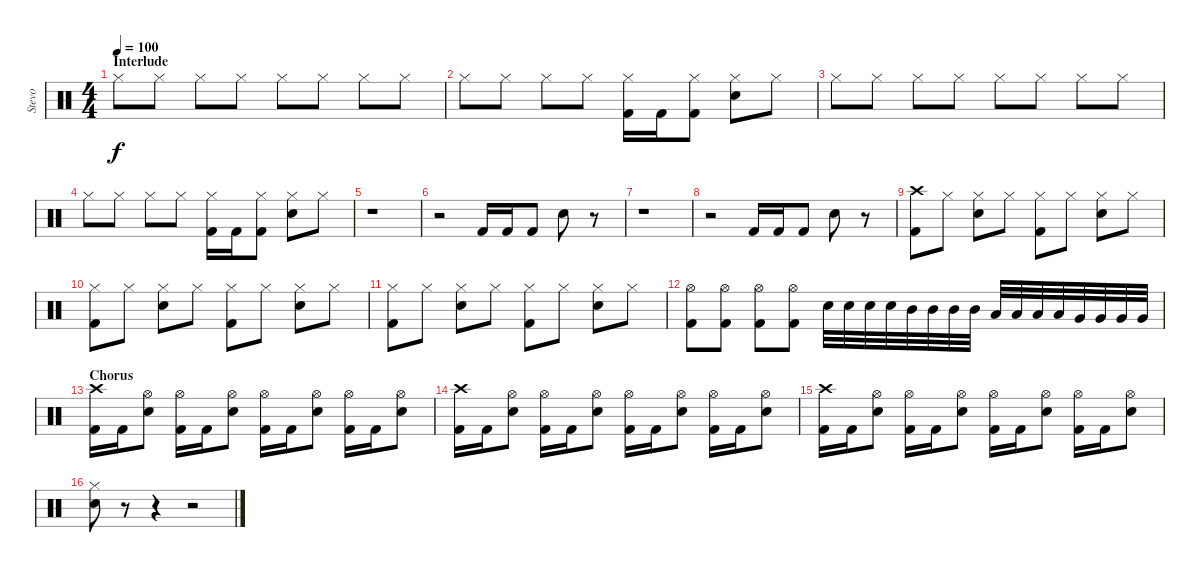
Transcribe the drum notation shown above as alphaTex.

\track ("Stevo" "Stevo") {instrument percussion}
\staff {score}
\articulation defaults
\ts (4 4)
\section ("" "Interlude")
\tempo 100
\clef neutral
\ks c "Hi-Hat (closed)".8{dy f} "Hi-Hat (closed)".8 "Hi-Hat (closed)".8 "Hi-Hat (closed)".8 "Hi-Hat (closed)".8 "Hi-Hat (closed)".8 "Hi-Hat (closed)".8 "Hi-Hat (closed)".8
|
"Hi-Hat (closed)".8 "Hi-Hat (closed)".8 "Hi-Hat (closed)".8 "Hi-Hat (closed)".8 ("Hi-Hat (closed)" "Kick (hit) 2").16 "Kick (hit) 2".16 ("Hi-Hat (closed)" "Kick (hit) 2").8 ("Hi-Hat (closed)" "Electric Snare (hit)").8 "Hi-Hat (closed)".8 |
"Hi-Hat (closed)".8 "Hi-Hat (closed)".8 "Hi-Hat (closed)".8 "Hi-Hat (closed)".8 "Hi-Hat (closed)".8 "Hi-Hat (closed)".8 "Hi-Hat (closed)".8 "Hi-Hat (closed)".8 |
"Hi-Hat (closed)".8 "Hi-Hat (closed)".8 "Hi-Hat (closed)".8 "Hi-Hat (closed)".8 ("Hi-Hat (closed)" "Kick (hit) 2").16 "Kick (hit) 2".16 ("Hi-Hat (closed)" "Kick (hit) 2").8 ("Hi-Hat (closed)" "Electric Snare (hit)").8 "Hi-Hat (closed)".8 |
r.1 |
r.2 "Kick (hit) 2".16 "Kick (hit) 2".16 "Kick (hit) 2".8 "Electric Snare (hit)".8 r.8 |
r.1 |
r.2 "Kick (hit) 2".16 "Kick (hit) 2".16 "Kick (hit) 2".8 "Electric Snare (hit)".8 r.8 |
("Crash high (hit)" "Kick (hit) 2").8 "Hi-Hat (closed)".8 ("Hi-Hat (closed)" "Electric Snare (hit)").8 "Hi-Hat (closed)".8 ("Hi-Hat (closed)" "Kick (hit) 2").8 "Hi-Hat (closed)".8 ("Hi-Hat (closed)" "Electric Snare (hit)").8 "Hi-Hat (closed)".8 |
("Hi-Hat (closed)" "Kick (hit) 2").8 "Hi-Hat (closed)".8 ("Hi-Hat (closed)" "Electric Snare (hit)").8 "Hi-Hat (closed)".8 ("Hi-Hat (closed)" "Kick (hit) 2").8 "Hi-Hat (closed)".8 ("Hi-Hat (closed)" "Electric Snare (hit)").8 "Hi-Hat (closed)".8 |
("Hi-Hat (closed)" "Kick (hit) 2").8 "Hi-Hat (closed)".8 ("Hi-Hat (closed)" "Electric Snare (hit)").8 "Hi-Hat (closed)".8 ("Hi-Hat (closed)" "Kick (hit) 2").8 "Hi-Hat (closed)".8 ("Hi-Hat (closed)" "Electric Snare (hit)").8 "Hi-Hat (closed)".8 |
("Hi-Hat (open)" "Kick (hit) 2").8 ("Hi-Hat (open)" "Kick (hit) 2").8 ("Hi-Hat (open)" "Kick (hit) 2").8 ("Hi-Hat (open)" "Kick (hit) 2").8 "Electric Snare (hit)".32 "Electric Snare (hit)".32 "Electric Snare (hit)".32 "Electric Snare (hit)".32 "Mid Tom (hit)".32 "Mid Tom (hit)".32 "Mid Tom (hit)".32 "Mid Tom (hit)".32 "Low Tom (hit)".32 "Low Tom (hit)".32 "Low Tom (hit)".32 "Low Tom (hit)".32 "Very Low Tom (hit)".32 "Very Low Tom (hit)".32 "Very Low Tom (hit)".32 "Very Low Tom (hit)".32 |
\section ("" "Chorus")
("Crash high (hit)" "Kick (hit) 2").16 "Kick (hit) 2".16 ("Hi-Hat (open)" "Electric Snare (hit)").8 ("Hi-Hat (open)" "Kick (hit) 2").16 "Kick (hit) 2".16 ("Hi-Hat (open)" "Electric Snare (hit)").8 ("Hi-Hat (open)" "Kick (hit) 2").16 "Kick (hit) 2".16 ("Hi-Hat (open)" "Electric Snare (hit)").8 ("Hi-Hat (open)" "Kick (hit) 2").16 "Kick (hit) 2".16 ("Hi-Hat (open)" "Electric Snare (hit)").8 |
("Crash high (hit)" "Kick (hit) 2").16 "Kick (hit) 2".16 ("Hi-Hat (open)" "Electric Snare (hit)").8 ("Hi-Hat (open)" "Kick (hit) 2").16 "Kick (hit) 2".16 ("Hi-Hat (open)" "Electric Snare (hit)").8 ("Hi-Hat (open)" "Kick (hit) 2").16 "Kick (hit) 2".16 ("Hi-Hat (open)" "Electric Snare (hit)").8 ("Hi-Hat (open)" "Kick (hit) 2").16 "Kick (hit) 2".16 ("Hi-Hat (open)" "Electric Snare (hit)").8 |
("Crash high (hit)" "Kick (hit) 2").16 "Kick (hit) 2".16 ("Hi-Hat (open)" "Electric Snare (hit)").8 ("Hi-Hat (open)" "Kick (hit) 2").16 "Kick (hit) 2".16 ("Hi-Hat (open)" "Electric Snare (hit)").8 ("Hi-Hat (open)" "Kick (hit) 2").16 "Kick (hit) 2".16 ("Hi-Hat (open)" "Electric Snare (hit)").8 ("Hi-Hat (open)" "Kick (hit) 2").16 "Kick (hit) 2".16 ("Hi-Hat (open)" "Electric Snare (hit)").8 |
("Hi-Hat (closed)" "Electric Snare (hit)").8 r.8 r.4 r.2
